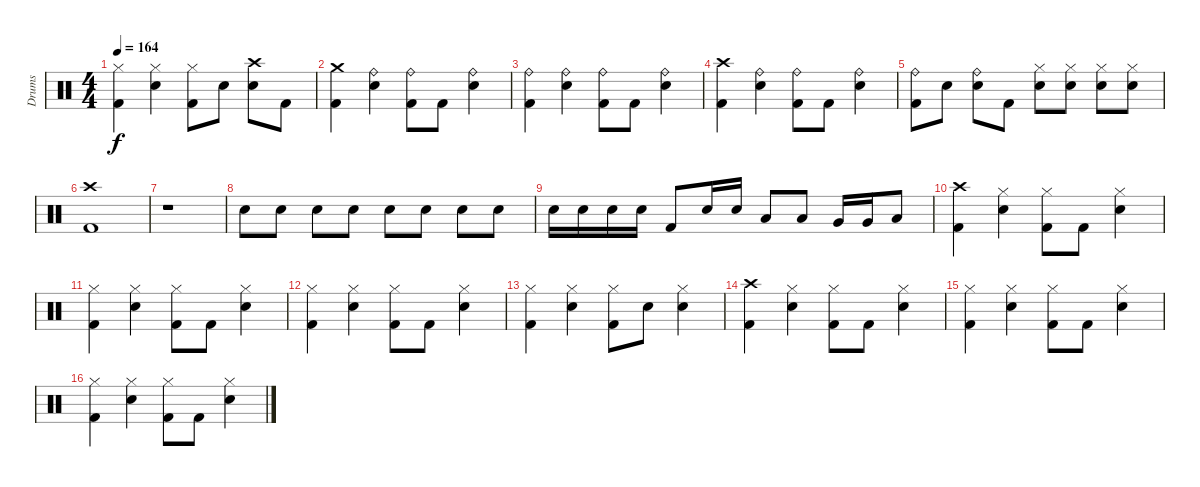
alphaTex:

\track ("Drums" "Drums") {instrument percussion}
\staff {score}
\articulation defaults
\ts (4 4)
\tempo 164
\clef neutral
\ks c
("Kick (hit) 2" "Hi-Hat (closed)").4{dy f} ("Snare (hit) 2" "Hi-Hat (closed)").4 ("Kick (hit) 2" "Hi-Hat (closed)").8 "Snare (hit) 2".8 ("Snare (hit) 2" "Crash high (hit)").8 "Kick (hit) 2".8 |
("Kick (hit) 2" "Crash medium (hit)").4 ("Snare (hit) 2" "Ride (bell)").4 ("Kick (hit) 2" "Ride (bell)").8 "Kick (hit) 2".8 ("Snare (hit) 2" "Ride (bell)").4 |
("Kick (hit) 2" "Ride (bell)").4 ("Snare (hit) 2" "Ride (bell)").4 ("Kick (hit) 2" "Ride (bell)").8 "Kick (hit) 2".8 ("Snare (hit) 2" "Ride (bell)").4 |
("Kick (hit) 2" "Crash high (hit)").4 ("Snare (hit) 2" "Ride (bell)").4 ("Kick (hit) 2" "Ride (bell)").8 "Kick (hit) 2".8 ("Snare (hit) 2" "Ride (bell)").4 |
("Kick (hit) 2" "Ride (bell)").8 "Snare (hit) 2".8 ("Snare (hit) 2" "Ride (bell)").8 "Kick (hit) 2".8 ("Snare (hit) 2" "Hi-Hat (closed)").8 ("Snare (hit) 2" "Hi-Hat (closed)").8 ("Snare (hit) 2" "Hi-Hat (closed)").8 ("Snare (hit) 2" "Hi-Hat (closed)").8 |
("Kick (hit) 2" "Crash high (hit)").1 |
r.1{volume 5} |
"Snare (hit) 2".8{volume 13} "Snare (hit) 2".8 "Snare (hit) 2".8 "Snare (hit) 2".8 "Snare (hit) 2".8 "Snare (hit) 2".8 "Snare (hit) 2".8 "Snare (hit) 2".8 |
"Snare (hit) 2".16 "Snare (hit) 2".16 "Snare (hit) 2".16 "Snare (hit) 2".16 "Kick (hit) 2".8 "Snare (hit) 2".16 "Snare (hit) 2".16 "Low Tom (hit)".8 "Low Tom (hit)".8 "Very Low Tom (hit)".16 "Very Low Tom (hit)".16 "Low Floor Tom (hit)".8 |
("Kick (hit) 2" "Crash high (hit)").4 ("Snare (hit) 2" "Hi-Hat (closed)").4 ("Kick (hit) 2" "Hi-Hat (closed)").8 "Kick (hit) 2".8 ("Snare (hit) 2" "Hi-Hat (closed)").4 |
("Kick (hit) 2" "Hi-Hat (closed)").4 ("Snare (hit) 2" "Hi-Hat (closed)").4 ("Kick (hit) 2" "Hi-Hat (closed)").8 "Kick (hit) 2".8 ("Snare (hit) 2" "Hi-Hat (closed)").4 |
("Kick (hit) 2" "Hi-Hat (closed)").4 ("Snare (hit) 2" "Hi-Hat (closed)").4 ("Kick (hit) 2" "Hi-Hat (closed)").8 "Kick (hit) 2".8 ("Snare (hit) 2" "Hi-Hat (closed)").4 |
("Kick (hit) 2" "Hi-Hat (closed)").4 ("Snare (hit) 2" "Hi-Hat (closed)").4 ("Kick (hit) 2" "Hi-Hat (closed)").8 "Snare (hit) 2".8 ("Snare (hit) 2" "Hi-Hat (closed)").4 |
("Kick (hit) 2" "Crash high (hit)").4 ("Snare (hit) 2" "Hi-Hat (closed)").4 ("Kick (hit) 2" "Hi-Hat (closed)").8 "Kick (hit) 2".8 ("Snare (hit) 2" "Hi-Hat (closed)").4 |
("Kick (hit) 2" "Hi-Hat (closed)").4 ("Snare (hit) 2" "Hi-Hat (closed)").4 ("Kick (hit) 2" "Hi-Hat (closed)").8 "Kick (hit) 2".8 ("Snare (hit) 2" "Hi-Hat (closed)").4 |
("Kick (hit) 2" "Hi-Hat (closed)").4 ("Snare (hit) 2" "Hi-Hat (closed)").4 ("Kick (hit) 2" "Hi-Hat (closed)").8 "Kick (hit) 2".8 ("Snare (hit) 2" "Hi-Hat (closed)").4
